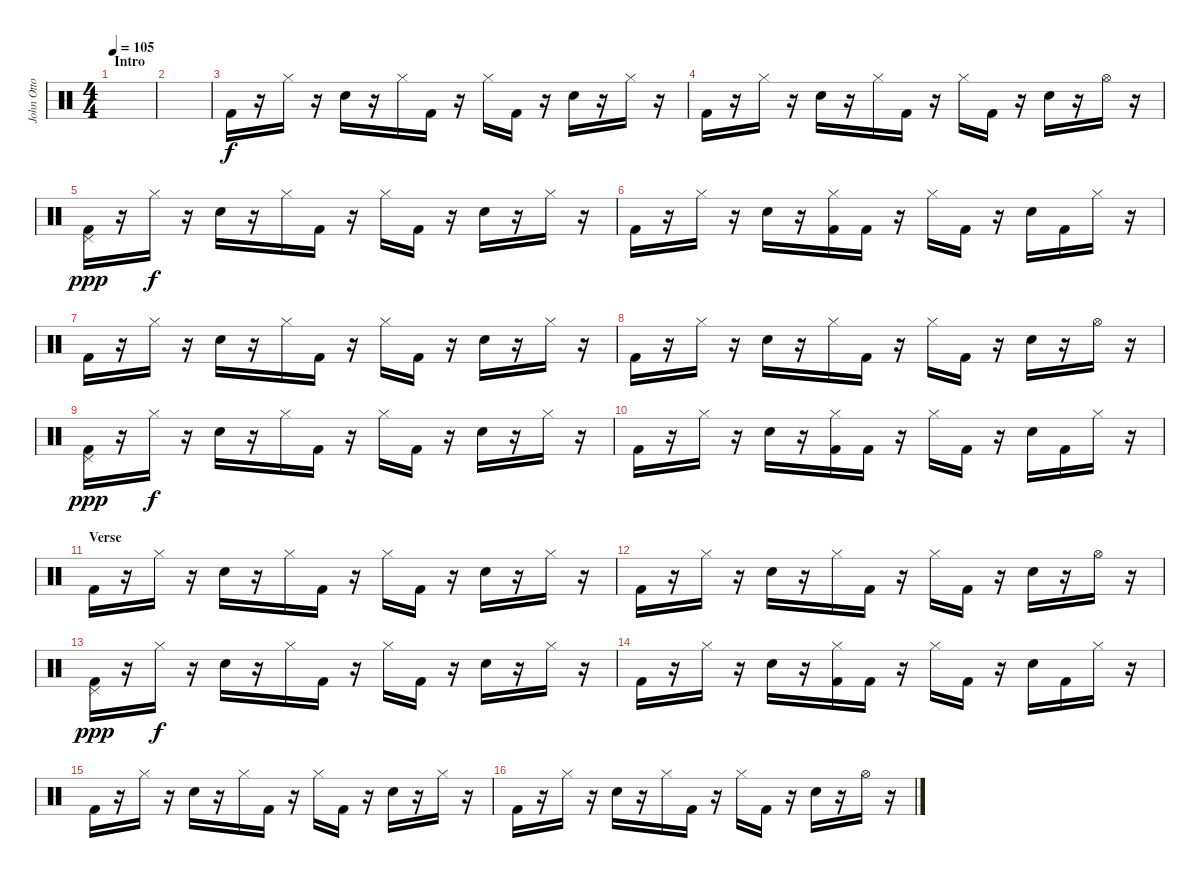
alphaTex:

\track ("John Otto - Drums" "John Otto ") {instrument percussion}
\staff {score}
\articulation defaults
\ts (4 4)
\section ("" "Intro")
\tempo 105
\clef neutral
\ks c
|
|
"Kick (hit) 2".16 r.16 "Hi-Hat (closed)".16 r.16 "Electric Snare (hit)".16 r.16 "Hi-Hat (closed)".16 "Kick (hit) 2".16 r.16 "Hi-Hat (closed)".16 "Kick (hit) 2".16 r.16 "Electric Snare (hit)".16 r.16 "Hi-Hat (closed)".16 r.16 |
"Kick (hit) 2".16 r.16 "Hi-Hat (closed)".16 r.16 "Electric Snare (hit)".16 r.16 "Hi-Hat (closed)".16 "Kick (hit) 2".16 r.16 "Hi-Hat (closed)".16 "Kick (hit) 2".16 r.16 "Electric Snare (hit)".16 r.16 "Hi-Hat (open)".16 r.16 |
("Pedal Hi-Hat (hit)" "Kick (hit) 2").16{dy ppp} r.16 "Hi-Hat (closed)".16{dy f} r.16 "Electric Snare (hit)".16 r.16 "Hi-Hat (closed)".16 "Kick (hit) 2".16 r.16 "Hi-Hat (closed)".16 "Kick (hit) 2".16 r.16 "Electric Snare (hit)".16 r.16 "Hi-Hat (closed)".16 r.16 |
"Kick (hit) 2".16 r.16 "Hi-Hat (closed)".16 r.16 "Electric Snare (hit)".16 r.16 ("Hi-Hat (closed)" "Kick (hit) 2").16 "Kick (hit) 2".16 r.16 "Hi-Hat (closed)".16 "Kick (hit) 2".16 r.16 "Electric Snare (hit)".16 "Kick (hit) 2".16 "Hi-Hat (closed)".16 r.16 |
"Kick (hit) 2".16 r.16 "Hi-Hat (closed)".16 r.16 "Electric Snare (hit)".16 r.16 "Hi-Hat (closed)".16 "Kick (hit) 2".16 r.16 "Hi-Hat (closed)".16 "Kick (hit) 2".16 r.16 "Electric Snare (hit)".16 r.16 "Hi-Hat (closed)".16 r.16 |
"Kick (hit) 2".16 r.16 "Hi-Hat (closed)".16 r.16 "Electric Snare (hit)".16 r.16 "Hi-Hat (closed)".16 "Kick (hit) 2".16 r.16 "Hi-Hat (closed)".16 "Kick (hit) 2".16 r.16 "Electric Snare (hit)".16 r.16 "Hi-Hat (open)".16 r.16 |
("Pedal Hi-Hat (hit)" "Kick (hit) 2").16{dy ppp} r.16 "Hi-Hat (closed)".16{dy f} r.16 "Electric Snare (hit)".16 r.16 "Hi-Hat (closed)".16 "Kick (hit) 2".16 r.16 "Hi-Hat (closed)".16 "Kick (hit) 2".16 r.16 "Electric Snare (hit)".16 r.16 "Hi-Hat (closed)".16 r.16 |
"Kick (hit) 2".16 r.16 "Hi-Hat (closed)".16 r.16 "Electric Snare (hit)".16 r.16 ("Hi-Hat (closed)" "Kick (hit) 2").16 "Kick (hit) 2".16 r.16 "Hi-Hat (closed)".16 "Kick (hit) 2".16 r.16 "Electric Snare (hit)".16 "Kick (hit) 2".16 "Hi-Hat (closed)".16 r.16 |
\section ("" "Verse")
"Kick (hit) 2".16 r.16 "Hi-Hat (closed)".16 r.16 "Electric Snare (hit)".16 r.16 "Hi-Hat (closed)".16 "Kick (hit) 2".16 r.16 "Hi-Hat (closed)".16 "Kick (hit) 2".16 r.16 "Electric Snare (hit)".16 r.16 "Hi-Hat (closed)".16 r.16 |
"Kick (hit) 2".16 r.16 "Hi-Hat (closed)".16 r.16 "Electric Snare (hit)".16 r.16 "Hi-Hat (closed)".16 "Kick (hit) 2".16 r.16 "Hi-Hat (closed)".16 "Kick (hit) 2".16 r.16 "Electric Snare (hit)".16 r.16 "Hi-Hat (open)".16 r.16 |
("Pedal Hi-Hat (hit)" "Kick (hit) 2").16{dy ppp} r.16 "Hi-Hat (closed)".16{dy f} r.16 "Electric Snare (hit)".16 r.16 "Hi-Hat (closed)".16 "Kick (hit) 2".16 r.16 "Hi-Hat (closed)".16 "Kick (hit) 2".16 r.16 "Electric Snare (hit)".16 r.16 "Hi-Hat (closed)".16 r.16 |
"Kick (hit) 2".16 r.16 "Hi-Hat (closed)".16 r.16 "Electric Snare (hit)".16 r.16 ("Hi-Hat (closed)" "Kick (hit) 2").16 "Kick (hit) 2".16 r.16 "Hi-Hat (closed)".16 "Kick (hit) 2".16 r.16 "Electric Snare (hit)".16 "Kick (hit) 2".16 "Hi-Hat (closed)".16 r.16 |
"Kick (hit) 2".16 r.16 "Hi-Hat (closed)".16 r.16 "Electric Snare (hit)".16 r.16 "Hi-Hat (closed)".16 "Kick (hit) 2".16 r.16 "Hi-Hat (closed)".16 "Kick (hit) 2".16 r.16 "Electric Snare (hit)".16 r.16 "Hi-Hat (closed)".16 r.16 |
"Kick (hit) 2".16 r.16 "Hi-Hat (closed)".16 r.16 "Electric Snare (hit)".16 r.16 "Hi-Hat (closed)".16 "Kick (hit) 2".16 r.16 "Hi-Hat (closed)".16 "Kick (hit) 2".16 r.16 "Electric Snare (hit)".16 r.16 "Hi-Hat (open)".16 r.16
